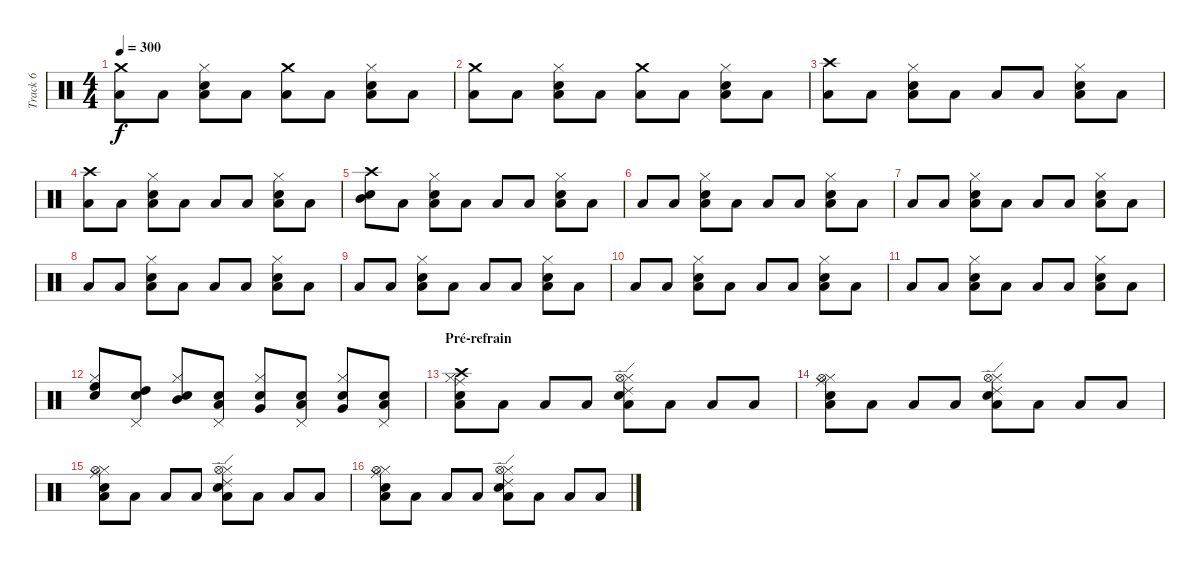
\track ("Track 6" "Track 6") {instrument percussion}
\staff {score}
\articulation defaults
\ts (4 4)
\tempo 300
\clef neutral
\ks c
("Low Floor Tom (hit)" "Crash medium (hit)").8{dy f} "Low Floor Tom (hit)".8 ("Electric Snare (hit)" "Low Tom (hit)" "Hi-Hat (closed)").8 "Low Floor Tom (hit)".8 ("Low Floor Tom (hit)" "Crash medium (hit)").8 "Low Floor Tom (hit)".8 ("Electric Snare (hit)" "Low Tom (hit)" "Hi-Hat (closed)").8 "Low Floor Tom (hit)".8 |
("Low Floor Tom (hit)" "Crash medium (hit)").8 "Low Floor Tom (hit)".8 ("Electric Snare (hit)" "Low Tom (hit)" "Hi-Hat (closed)").8 "Low Floor Tom (hit)".8 ("Low Floor Tom (hit)" "Crash medium (hit)").8 "Low Floor Tom (hit)".8 ("Electric Snare (hit)" "Low Tom (hit)" "Hi-Hat (closed)").8 "Low Floor Tom (hit)".8 |
("Low Floor Tom (hit)" "Crash high (hit)").8 "Low Floor Tom (hit)".8 ("Electric Snare (hit)" "Low Tom (hit)" "Hi-Hat (closed)").8 "Low Floor Tom (hit)".8 "Low Floor Tom (hit)".8 "Low Floor Tom (hit)".8 ("Electric Snare (hit)" "Low Tom (hit)" "Hi-Hat (closed)").8 "Low Floor Tom (hit)".8 |
("Low Floor Tom (hit)" "Crash high (hit)").8 "Low Floor Tom (hit)".8 ("Electric Snare (hit)" "Low Tom (hit)" "Hi-Hat (closed)").8 "Low Floor Tom (hit)".8 "Low Floor Tom (hit)".8 "Low Floor Tom (hit)".8 ("Electric Snare (hit)" "Low Tom (hit)" "Hi-Hat (closed)").8 "Low Floor Tom (hit)".8 |
("Snare (hit) 2" "Mid Tom (hit)" "Crash high (hit)").8 "Low Floor Tom (hit)".8 ("Electric Snare (hit)" "Low Tom (hit)" "Hi-Hat (closed)").8 "Low Floor Tom (hit)".8 "Low Floor Tom (hit)".8 "Low Floor Tom (hit)".8 ("Electric Snare (hit)" "Low Tom (hit)" "Hi-Hat (closed)").8 "Low Floor Tom (hit)".8 |
"Low Floor Tom (hit)".8 "Low Floor Tom (hit)".8 ("Electric Snare (hit)" "Low Tom (hit)" "Hi-Hat (closed)").8 "Low Floor Tom (hit)".8 "Low Floor Tom (hit)".8 "Low Floor Tom (hit)".8 ("Electric Snare (hit)" "Low Tom (hit)" "Hi-Hat (closed)").8 "Low Floor Tom (hit)".8 |
"Low Floor Tom (hit)".8 "Low Floor Tom (hit)".8 ("Electric Snare (hit)" "Low Tom (hit)" "Hi-Hat (closed)").8 "Low Floor Tom (hit)".8 "Low Floor Tom (hit)".8 "Low Floor Tom (hit)".8 ("Electric Snare (hit)" "Low Tom (hit)" "Hi-Hat (closed)").8 "Low Floor Tom (hit)".8 |
"Low Floor Tom (hit)".8 "Low Floor Tom (hit)".8 ("Electric Snare (hit)" "Low Tom (hit)" "Hi-Hat (closed)").8 "Low Floor Tom (hit)".8 "Low Floor Tom (hit)".8 "Low Floor Tom (hit)".8 ("Electric Snare (hit)" "Low Tom (hit)" "Hi-Hat (closed)").8 "Low Floor Tom (hit)".8 |
"Low Floor Tom (hit)".8 "Low Floor Tom (hit)".8 ("Electric Snare (hit)" "Low Tom (hit)" "Hi-Hat (closed)").8 "Low Floor Tom (hit)".8 "Low Floor Tom (hit)".8 "Low Floor Tom (hit)".8 ("Electric Snare (hit)" "Low Tom (hit)" "Hi-Hat (closed)").8 "Low Floor Tom (hit)".8 |
"Low Floor Tom (hit)".8 "Low Floor Tom (hit)".8 ("Electric Snare (hit)" "Low Tom (hit)" "Hi-Hat (closed)").8 "Low Floor Tom (hit)".8 "Low Floor Tom (hit)".8 "Low Floor Tom (hit)".8 ("Electric Snare (hit)" "Low Tom (hit)" "Hi-Hat (closed)").8 "Low Floor Tom (hit)".8 |
"Low Floor Tom (hit)".8 "Low Floor Tom (hit)".8 ("Electric Snare (hit)" "Low Tom (hit)" "Hi-Hat (closed)").8 "Low Floor Tom (hit)".8 "Low Floor Tom (hit)".8 "Low Floor Tom (hit)".8 ("Electric Snare (hit)" "Low Tom (hit)" "Hi-Hat (closed)").8 "Low Floor Tom (hit)".8 |
("High Floor Tom (hit)" "Electric Snare (hit)" "Hi-Hat (closed)").8 ("High Tom (hit)" "Electric Snare (hit)" "Pedal Hi-Hat (hit)").8 ("Mid Tom (hit)" "Electric Snare (hit)" "Hi-Hat (closed)").8 ("Low Tom (hit)" "Electric Snare (hit)" "Pedal Hi-Hat (hit)").8 ("Very Low Tom (hit)" "Electric Snare (hit)" "Hi-Hat (closed)").8 ("Low Floor Tom (hit)" "Electric Snare (hit)" "Pedal Hi-Hat (hit)").8 ("Very Low Tom (hit)" "Electric Snare (hit)" "Hi-Hat (closed)").8 ("Low Tom (hit)" "Electric Snare (hit)" "Pedal Hi-Hat (hit)").8 |
\section ("" "Pré-refrain")
("Snare (hit) 2" "Low Tom (hit)" "Hi-Hat (closed)" "Crash high (hit)" "Ride (middle)").8 "Low Floor Tom (hit)".8 "Low Floor Tom (hit)".8 "Low Floor Tom (hit)".8 ("Electric Snare (hit)" "Low Tom (hit)" "Hi-Hat (closed)" "Hi-Hat (open)" "Ride (edge) 2").8 "Low Floor Tom (hit)".8 "Low Floor Tom (hit)".8 "Low Floor Tom (hit)".8 |
("Snare (hit) 2" "Low Tom (hit)" "Hi-Hat (closed)" "Hi-Hat (open)" "Ride (middle)").8 "Low Floor Tom (hit)".8 "Low Floor Tom (hit)".8 "Low Floor Tom (hit)".8 ("Electric Snare (hit)" "Low Tom (hit)" "Hi-Hat (closed)" "Hi-Hat (open)" "Ride (edge) 2").8 "Low Floor Tom (hit)".8 "Low Floor Tom (hit)".8 "Low Floor Tom (hit)".8 |
("Snare (hit) 2" "Low Tom (hit)" "Hi-Hat (closed)" "Hi-Hat (open)" "Ride (middle)").8 "Low Floor Tom (hit)".8 "Low Floor Tom (hit)".8 "Low Floor Tom (hit)".8 ("Electric Snare (hit)" "Low Tom (hit)" "Hi-Hat (closed)" "Hi-Hat (open)" "Ride (edge) 2").8 "Low Floor Tom (hit)".8 "Low Floor Tom (hit)".8 "Low Floor Tom (hit)".8 |
("Snare (hit) 2" "Low Tom (hit)" "Hi-Hat (closed)" "Hi-Hat (open)" "Ride (middle)").8 "Low Floor Tom (hit)".8 "Low Floor Tom (hit)".8 "Low Floor Tom (hit)".8 ("Electric Snare (hit)" "Low Tom (hit)" "Hi-Hat (closed)" "Hi-Hat (open)" "Ride (edge) 2").8 "Low Floor Tom (hit)".8 "Low Floor Tom (hit)".8 "Low Floor Tom (hit)".8
